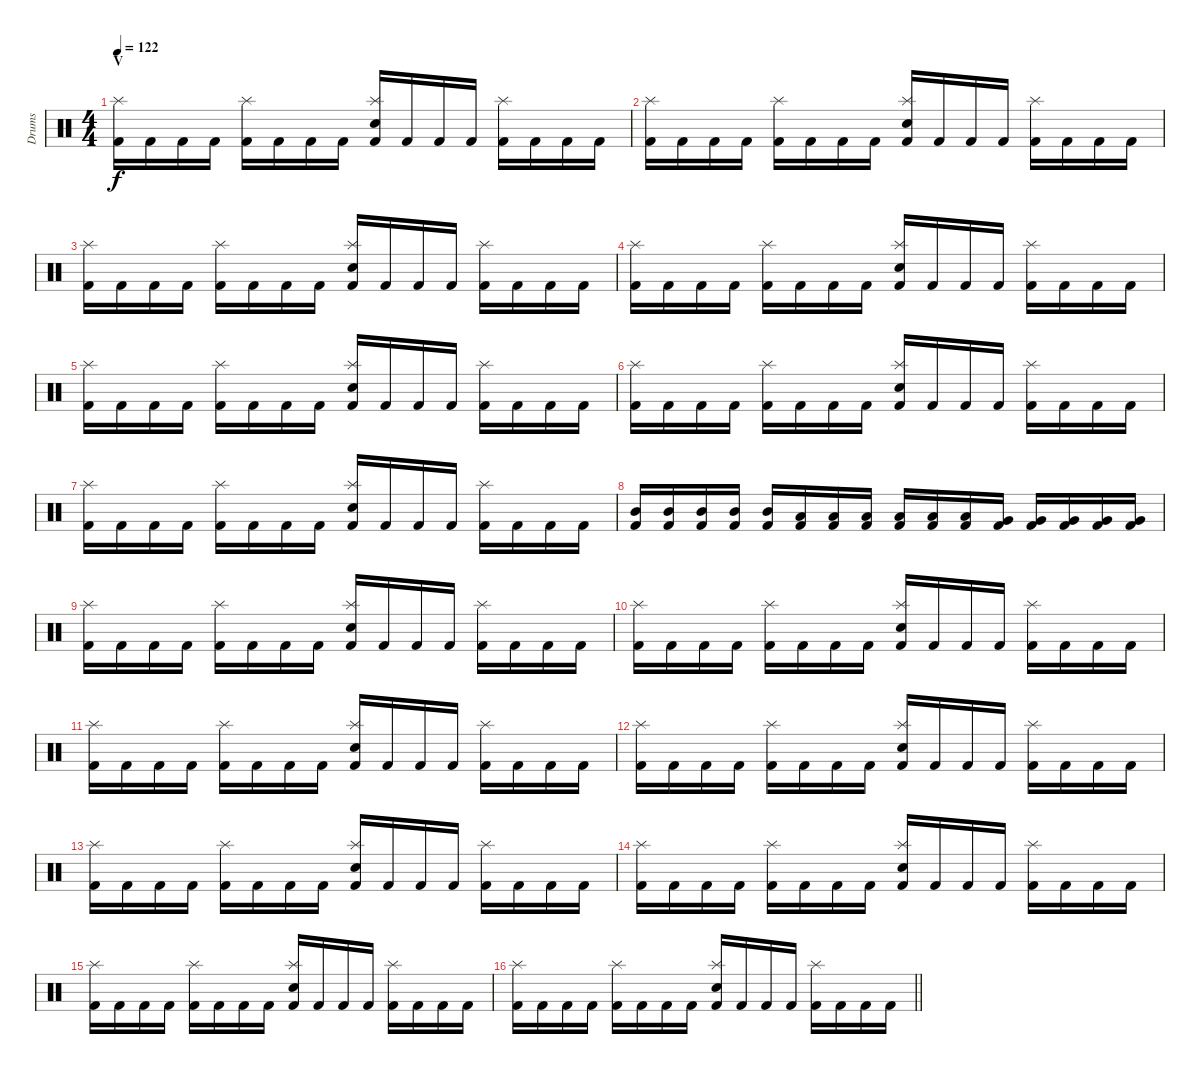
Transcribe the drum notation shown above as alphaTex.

\track ("Drums" "Drums") {instrument percussion}
\staff {score}
\articulation defaults
\ts (4 4)
\section ("" "V")
\tempo 122
\clef neutral
\ks c
("Kick (hit) 2" "Splash (hit)").16{dy f} "Kick (hit) 2".16 "Kick (hit) 2".16 "Kick (hit) 2".16 ("Kick (hit) 2" "Splash (hit)").16 "Kick (hit) 2".16 "Kick (hit) 2".16 "Kick (hit) 2".16 ("Kick (hit) 2" "Splash (hit)" "Snare (hit) 2").16 "Kick (hit) 2".16 "Kick (hit) 2".16 "Kick (hit) 2".16 ("Kick (hit) 2" "Splash (hit)").16 "Kick (hit) 2".16 "Kick (hit) 2".16 "Kick (hit) 2".16 |
("Kick (hit) 2" "Splash (hit)").16 "Kick (hit) 2".16 "Kick (hit) 2".16 "Kick (hit) 2".16 ("Kick (hit) 2" "Splash (hit)").16 "Kick (hit) 2".16 "Kick (hit) 2".16 "Kick (hit) 2".16 ("Kick (hit) 2" "Splash (hit)" "Snare (hit) 2").16 "Kick (hit) 2".16 "Kick (hit) 2".16 "Kick (hit) 2".16 ("Kick (hit) 2" "Splash (hit)").16 "Kick (hit) 2".16 "Kick (hit) 2".16 "Kick (hit) 2".16 |
("Kick (hit) 2" "Splash (hit)").16 "Kick (hit) 2".16 "Kick (hit) 2".16 "Kick (hit) 2".16 ("Kick (hit) 2" "Splash (hit)").16 "Kick (hit) 2".16 "Kick (hit) 2".16 "Kick (hit) 2".16 ("Kick (hit) 2" "Splash (hit)" "Snare (hit) 2").16 "Kick (hit) 2".16 "Kick (hit) 2".16 "Kick (hit) 2".16 ("Kick (hit) 2" "Splash (hit)").16 "Kick (hit) 2".16 "Kick (hit) 2".16 "Kick (hit) 2".16 |
("Kick (hit) 2" "Splash (hit)").16 "Kick (hit) 2".16 "Kick (hit) 2".16 "Kick (hit) 2".16 ("Kick (hit) 2" "Splash (hit)").16 "Kick (hit) 2".16 "Kick (hit) 2".16 "Kick (hit) 2".16 ("Kick (hit) 2" "Splash (hit)" "Snare (hit) 2").16 "Kick (hit) 2".16 "Kick (hit) 2".16 "Kick (hit) 2".16 ("Kick (hit) 2" "Splash (hit)").16 "Kick (hit) 2".16 "Kick (hit) 2".16 "Kick (hit) 2".16 |
("Kick (hit) 2" "Splash (hit)").16 "Kick (hit) 2".16 "Kick (hit) 2".16 "Kick (hit) 2".16 ("Kick (hit) 2" "Splash (hit)").16 "Kick (hit) 2".16 "Kick (hit) 2".16 "Kick (hit) 2".16 ("Kick (hit) 2" "Splash (hit)" "Snare (hit) 2").16 "Kick (hit) 2".16 "Kick (hit) 2".16 "Kick (hit) 2".16 ("Kick (hit) 2" "Splash (hit)").16 "Kick (hit) 2".16 "Kick (hit) 2".16 "Kick (hit) 2".16 |
("Kick (hit) 2" "Splash (hit)").16 "Kick (hit) 2".16 "Kick (hit) 2".16 "Kick (hit) 2".16 ("Kick (hit) 2" "Splash (hit)").16 "Kick (hit) 2".16 "Kick (hit) 2".16 "Kick (hit) 2".16 ("Kick (hit) 2" "Splash (hit)" "Snare (hit) 2").16 "Kick (hit) 2".16 "Kick (hit) 2".16 "Kick (hit) 2".16 ("Kick (hit) 2" "Splash (hit)").16 "Kick (hit) 2".16 "Kick (hit) 2".16 "Kick (hit) 2".16 |
("Kick (hit) 2" "Splash (hit)").16 "Kick (hit) 2".16 "Kick (hit) 2".16 "Kick (hit) 2".16 ("Kick (hit) 2" "Splash (hit)").16 "Kick (hit) 2".16 "Kick (hit) 2".16 "Kick (hit) 2".16 ("Kick (hit) 2" "Splash (hit)" "Snare (hit) 2").16 "Kick (hit) 2".16 "Kick (hit) 2".16 "Kick (hit) 2".16 ("Kick (hit) 2" "Splash (hit)").16 "Kick (hit) 2".16 "Kick (hit) 2".16 "Kick (hit) 2".16 |
("Kick (hit) 2" "Mid Tom (hit)").16 ("Kick (hit) 2" "Mid Tom (hit)").16 ("Kick (hit) 2" "Mid Tom (hit)").16 ("Kick (hit) 2" "Mid Tom (hit)").16 ("Kick (hit) 2" "Mid Tom (hit)").16 ("Kick (hit) 2" "Low Tom (hit)").16 ("Kick (hit) 2" "Low Tom (hit)").16 ("Kick (hit) 2" "Low Tom (hit)").16 ("Kick (hit) 2" "Low Tom (hit)").16 ("Kick (hit) 2" "Low Tom (hit)").16 ("Kick (hit) 2" "Low Tom (hit)").16 ("Kick (hit) 2" "Very Low Tom (hit)").16 ("Kick (hit) 2" "Very Low Tom (hit)").16 ("Kick (hit) 2" "Very Low Tom (hit)").16 ("Kick (hit) 2" "Very Low Tom (hit)").16 ("Kick (hit) 2" "Very Low Tom (hit)").16 |
("Kick (hit) 2" "Splash (hit)").16 "Kick (hit) 2".16 "Kick (hit) 2".16 "Kick (hit) 2".16 ("Kick (hit) 2" "Splash (hit)").16 "Kick (hit) 2".16 "Kick (hit) 2".16 "Kick (hit) 2".16 ("Kick (hit) 2" "Splash (hit)" "Snare (hit) 2").16 "Kick (hit) 2".16 "Kick (hit) 2".16 "Kick (hit) 2".16 ("Kick (hit) 2" "Splash (hit)").16 "Kick (hit) 2".16 "Kick (hit) 2".16 "Kick (hit) 2".16 |
("Kick (hit) 2" "Splash (hit)").16 "Kick (hit) 2".16 "Kick (hit) 2".16 "Kick (hit) 2".16 ("Kick (hit) 2" "Splash (hit)").16 "Kick (hit) 2".16 "Kick (hit) 2".16 "Kick (hit) 2".16 ("Kick (hit) 2" "Splash (hit)" "Snare (hit) 2").16 "Kick (hit) 2".16 "Kick (hit) 2".16 "Kick (hit) 2".16 ("Kick (hit) 2" "Splash (hit)").16 "Kick (hit) 2".16 "Kick (hit) 2".16 "Kick (hit) 2".16 |
("Kick (hit) 2" "Splash (hit)").16 "Kick (hit) 2".16 "Kick (hit) 2".16 "Kick (hit) 2".16 ("Kick (hit) 2" "Splash (hit)").16 "Kick (hit) 2".16 "Kick (hit) 2".16 "Kick (hit) 2".16 ("Kick (hit) 2" "Splash (hit)" "Snare (hit) 2").16 "Kick (hit) 2".16 "Kick (hit) 2".16 "Kick (hit) 2".16 ("Kick (hit) 2" "Splash (hit)").16 "Kick (hit) 2".16 "Kick (hit) 2".16 "Kick (hit) 2".16 |
("Kick (hit) 2" "Splash (hit)").16 "Kick (hit) 2".16 "Kick (hit) 2".16 "Kick (hit) 2".16 ("Kick (hit) 2" "Splash (hit)").16 "Kick (hit) 2".16 "Kick (hit) 2".16 "Kick (hit) 2".16 ("Kick (hit) 2" "Splash (hit)" "Snare (hit) 2").16 "Kick (hit) 2".16 "Kick (hit) 2".16 "Kick (hit) 2".16 ("Kick (hit) 2" "Splash (hit)").16 "Kick (hit) 2".16 "Kick (hit) 2".16 "Kick (hit) 2".16 |
("Kick (hit) 2" "Splash (hit)").16 "Kick (hit) 2".16 "Kick (hit) 2".16 "Kick (hit) 2".16 ("Kick (hit) 2" "Splash (hit)").16 "Kick (hit) 2".16 "Kick (hit) 2".16 "Kick (hit) 2".16 ("Kick (hit) 2" "Splash (hit)" "Snare (hit) 2").16 "Kick (hit) 2".16 "Kick (hit) 2".16 "Kick (hit) 2".16 ("Kick (hit) 2" "Splash (hit)").16 "Kick (hit) 2".16 "Kick (hit) 2".16 "Kick (hit) 2".16 |
("Kick (hit) 2" "Splash (hit)").16 "Kick (hit) 2".16 "Kick (hit) 2".16 "Kick (hit) 2".16 ("Kick (hit) 2" "Splash (hit)").16 "Kick (hit) 2".16 "Kick (hit) 2".16 "Kick (hit) 2".16 ("Kick (hit) 2" "Splash (hit)" "Snare (hit) 2").16 "Kick (hit) 2".16 "Kick (hit) 2".16 "Kick (hit) 2".16 ("Kick (hit) 2" "Splash (hit)").16 "Kick (hit) 2".16 "Kick (hit) 2".16 "Kick (hit) 2".16 |
("Kick (hit) 2" "Splash (hit)").16 "Kick (hit) 2".16 "Kick (hit) 2".16 "Kick (hit) 2".16 ("Kick (hit) 2" "Splash (hit)").16 "Kick (hit) 2".16 "Kick (hit) 2".16 "Kick (hit) 2".16 ("Kick (hit) 2" "Splash (hit)" "Snare (hit) 2").16 "Kick (hit) 2".16 "Kick (hit) 2".16 "Kick (hit) 2".16 ("Kick (hit) 2" "Splash (hit)").16 "Kick (hit) 2".16 "Kick (hit) 2".16 "Kick (hit) 2".16 |
\barLineRight lightlight
("Kick (hit) 2" "Splash (hit)").16 "Kick (hit) 2".16 "Kick (hit) 2".16 "Kick (hit) 2".16 ("Kick (hit) 2" "Splash (hit)").16 "Kick (hit) 2".16 "Kick (hit) 2".16 "Kick (hit) 2".16 ("Kick (hit) 2" "Splash (hit)" "Snare (hit) 2").16 "Kick (hit) 2".16 "Kick (hit) 2".16 "Kick (hit) 2".16 ("Kick (hit) 2" "Splash (hit)").16 "Kick (hit) 2".16 "Kick (hit) 2".16 "Kick (hit) 2".16
